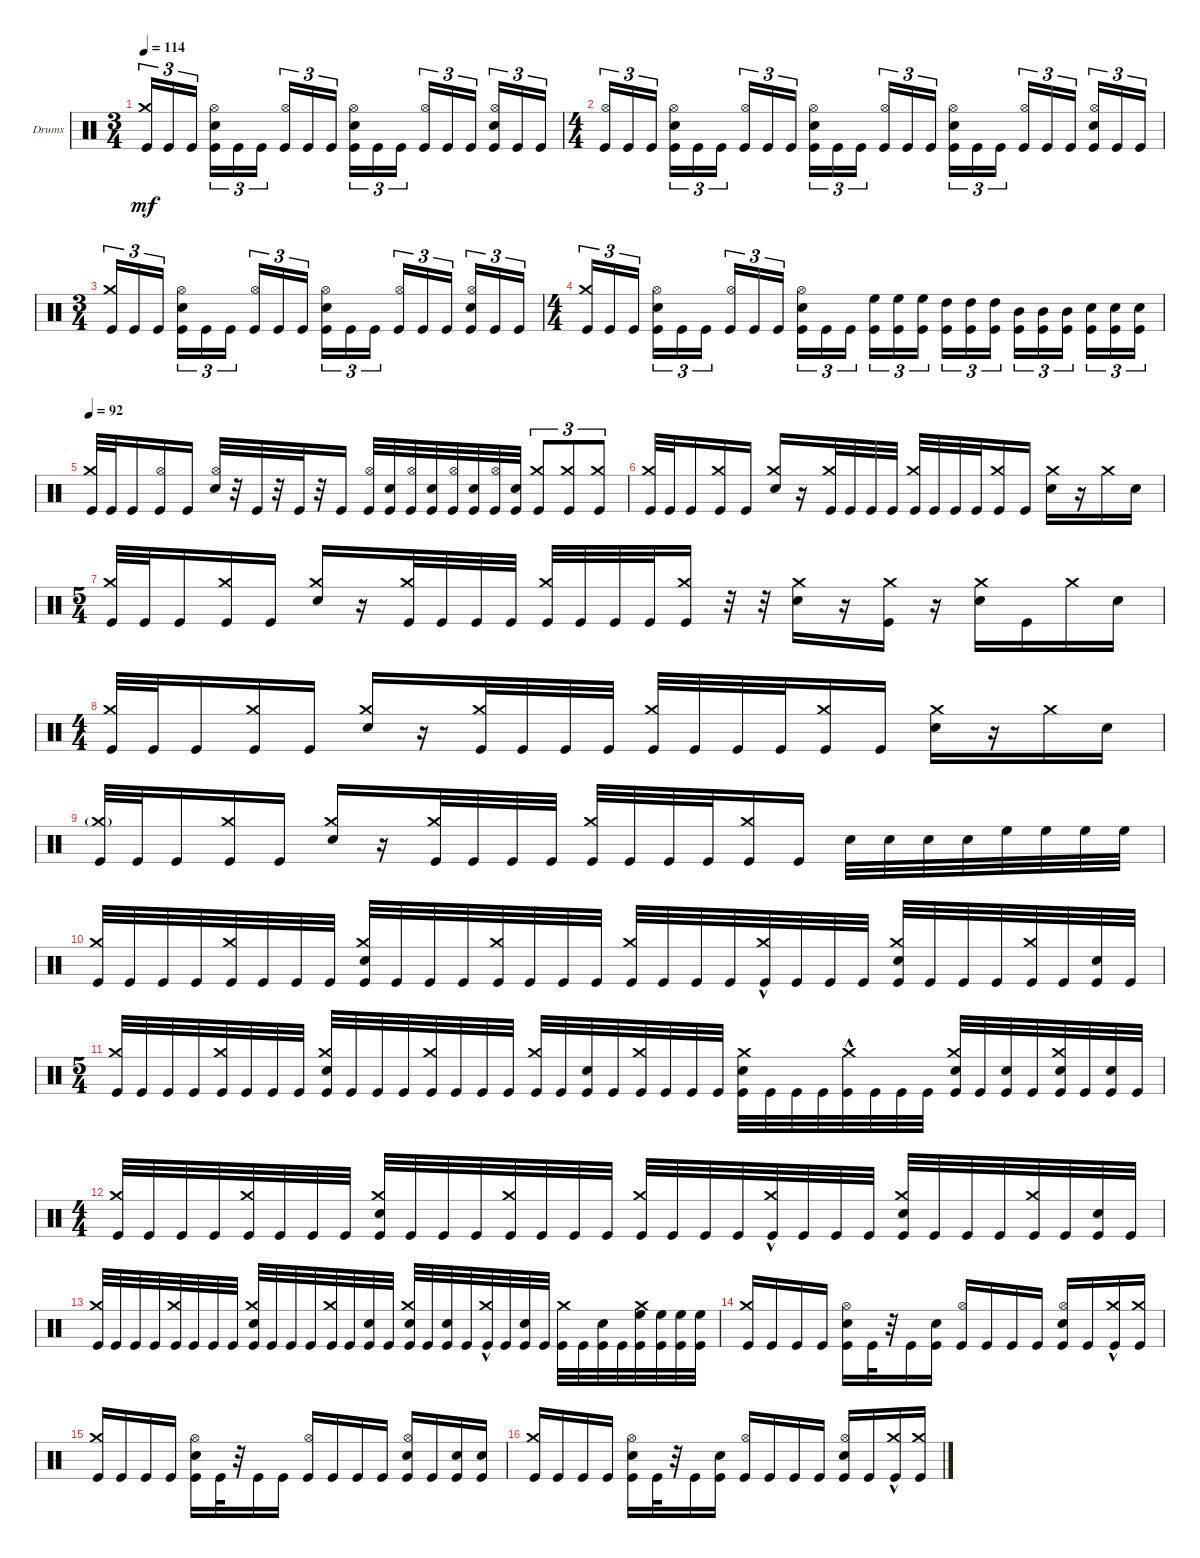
\defaultSystemsLayout 4
\bracketExtendMode groupsimilarinstruments
\firstSystemTrackNameOrientation horizontal
\otherSystemsTrackNameOrientation horizontal
\track ("Drumkit" "Drums") {instrument percussion}
\staff {score}
\articulation defaults
\ts (3 4)
\tempo 114
\clef neutral
\ks c
("Kick (hit)" "Crash medium (hit)").16{tu (3 2) dy mf beam invert} "Kick (hit)".16{tu (3 2)} "Kick (hit)".16{tu (3 2)} ("Kick (hit)" "Hi-Hat (open)" "Snare (hit) 2").16{tu (3 2)} "Kick (hit)".16{tu (3 2)} "Kick (hit)".16{tu (3 2)} ("Kick (hit)" "Hi-Hat (open)").16{tu (3 2) beam invert} "Kick (hit)".16{tu (3 2)} "Kick (hit)".16{tu (3 2)} ("Kick (hit)" "Hi-Hat (open)" "Snare (hit) 2").16{tu (3 2)} "Kick (hit)".16{tu (3 2)} "Kick (hit)".16{tu (3 2)} ("Kick (hit)" "Hi-Hat (open)").16{tu (3 2) beam invert} "Kick (hit)".16{tu (3 2)} "Kick (hit)".16{tu (3 2)} ("Kick (hit)" "Hi-Hat (open)" "Snare (hit) 2").16{tu (3 2)} "Kick (hit)".16{tu (3 2)} "Kick (hit)".16{tu (3 2)} |
\ts (4 4)
("Kick (hit)" "Hi-Hat (open)").16{tu (3 2) beam invert} "Kick (hit)".16{tu (3 2)} "Kick (hit)".16{tu (3 2)} ("Kick (hit)" "Hi-Hat (open)" "Snare (hit) 2").16{tu (3 2)} "Kick (hit)".16{tu (3 2)} "Kick (hit)".16{tu (3 2)} ("Kick (hit)" "Hi-Hat (open)").16{tu (3 2) beam invert} "Kick (hit)".16{tu (3 2)} "Kick (hit)".16{tu (3 2)} ("Kick (hit)" "Hi-Hat (open)" "Snare (hit) 2").16{tu (3 2)} "Kick (hit)".16{tu (3 2)} "Kick (hit)".16{tu (3 2)} ("Kick (hit)" "Hi-Hat (open)").16{tu (3 2) beam invert} "Kick (hit)".16{tu (3 2)} "Kick (hit)".16{tu (3 2)} ("Kick (hit)" "Hi-Hat (open)" "Snare (hit) 2").16{tu (3 2)} "Kick (hit)".16{tu (3 2)} "Kick (hit)".16{tu (3 2)} ("Kick (hit)" "Hi-Hat (open)").16{tu (3 2) beam invert} "Kick (hit)".16{tu (3 2)} "Kick (hit)".16{tu (3 2)} ("Kick (hit)" "Snare (hit) 2" "Hi-Hat (open)").16{tu (3 2)} "Kick (hit)".16{tu (3 2)} "Kick (hit)".16{tu (3 2)} |
\ts (3 4)
("Kick (hit)" "Crash medium (hit)").16{tu (3 2) beam invert} "Kick (hit)".16{tu (3 2)} "Kick (hit)".16{tu (3 2)} ("Kick (hit)" "Hi-Hat (open)" "Snare (hit) 2").16{tu (3 2)} "Kick (hit)".16{tu (3 2)} "Kick (hit)".16{tu (3 2)} ("Kick (hit)" "Hi-Hat (open)").16{tu (3 2) beam invert} "Kick (hit)".16{tu (3 2)} "Kick (hit)".16{tu (3 2)} ("Kick (hit)" "Hi-Hat (open)" "Snare (hit) 2").16{tu (3 2)} "Kick (hit)".16{tu (3 2)} "Kick (hit)".16{tu (3 2)} ("Kick (hit)" "Hi-Hat (open)").16{tu (3 2) beam invert} "Kick (hit)".16{tu (3 2)} "Kick (hit)".16{tu (3 2)} ("Kick (hit)" "Hi-Hat (open)" "Snare (hit) 2").16{tu (3 2)} "Kick (hit)".16{tu (3 2)} "Kick (hit)".16{tu (3 2)} |
\ts (4 4)
("Kick (hit)" "Crash medium (hit)").16{tu (3 2) beam invert} "Kick (hit)".16{tu (3 2)} "Kick (hit)".16{tu (3 2)} ("Kick (hit)" "Hi-Hat (open)" "Snare (hit) 2").16{tu (3 2)} "Kick (hit)".16{tu (3 2)} "Kick (hit)".16{tu (3 2)} ("Kick (hit)" "Hi-Hat (open)").16{tu (3 2) beam invert} "Kick (hit)".16{tu (3 2)} "Kick (hit)".16{tu (3 2)} ("Kick (hit)" "Hi-Hat (open)" "Snare (hit) 2").16{tu (3 2)} "Kick (hit)".16{tu (3 2)} "Kick (hit)".16{tu (3 2)} ("Kick (hit)" "High Floor Tom (hit)").16{tu (3 2) beam invert} ("Kick (hit)" "High Floor Tom (hit)").16{tu (3 2)} ("Kick (hit)" "High Floor Tom (hit)").16{tu (3 2)} ("High Tom (hit)" "Kick (hit)").16{tu (3 2) beam invert} ("High Tom (hit)" "Kick (hit)").16{tu (3 2)} ("High Tom (hit)" "Kick (hit)").16{tu (3 2)} ("Mid Tom (hit)" "Kick (hit)").16{tu (3 2) beam invert} ("Mid Tom (hit)" "Kick (hit)").16{tu (3 2)} ("Mid Tom (hit)" "Kick (hit)").16{tu (3 2)} ("Snare (hit) 2" "Kick (hit)").16{tu (3 2) beam invert} ("Snare (hit) 2" "Kick (hit)").16{tu (3 2)} ("Snare (hit) 2" "Kick (hit)").16{tu (3 2)} |
\tempo 92
("Kick (hit)" "Crash medium (hit)").32{beam invert} "Kick (hit)".32 "Kick (hit)".16 ("Kick (hit)" "Hi-Hat (open)").16 "Kick (hit)".16 ("Hi-Hat (open)" "Snare (hit) 2").32 r.32 "Kick (hit)".32 r.32 "Kick (hit)".32 r.32 "Kick (hit)".16 ("Kick (hit)" "Hi-Hat (open)").32{beam invert} ("Kick (hit)" "Snare (hit) 2").32 ("Kick (hit)" "Hi-Hat (open)").32 ("Kick (hit)" "Snare (hit) 2").32 ("Kick (hit)" "Hi-Hat (open)").32 ("Kick (hit)" "Snare (hit) 2").32 ("Kick (hit)" "Hi-Hat (open)").32 ("Kick (hit)" "Snare (hit) 2").32 ("Crash medium (hit)" "Kick (hit)").8{tu (3 2) beam invert} ("Crash medium (hit)" "Kick (hit)").8{tu (3 2)} ("Crash medium (hit)" "Kick (hit)").8{tu (3 2)} |
("Kick (hit)" "Crash medium (hit)").32{beam invert} "Kick (hit)".32 "Kick (hit)".16 ("Kick (hit)" "Crash medium (hit)").16 "Kick (hit)".16 ("Crash medium (hit)" "Snare (hit) 2").16{beam invert} r.16 ("Crash medium (hit)" "Kick (hit)").32 "Kick (hit)".32 "Kick (hit)".32 "Kick (hit)".32 ("Kick (hit)" "Crash medium (hit)").32{beam invert} "Kick (hit)".32 "Kick (hit)".32 "Kick (hit)".32 ("Kick (hit)" "Crash medium (hit)").16 "Kick (hit)".16 ("Crash medium (hit)" "Snare (hit) 2").16 r.16 "Crash medium (hit)".16 "Snare (hit) 2".16 |
\ts (5 4)
("Kick (hit)" "Crash medium (hit)").32{beam invert} "Kick (hit)".32 "Kick (hit)".16 ("Kick (hit)" "Crash medium (hit)").16 "Kick (hit)".16 ("Crash medium (hit)" "Snare (hit) 2").16{beam invert} r.16 ("Crash medium (hit)" "Kick (hit)").32 "Kick (hit)".32 "Kick (hit)".32 "Kick (hit)".32 ("Kick (hit)" "Crash medium (hit)").32{beam invert} "Kick (hit)".32 "Kick (hit)".32 "Kick (hit)".32 ("Kick (hit)" "Crash medium (hit)").16 r.32 r.32 ("Crash medium (hit)" "Snare (hit) 2").16 r.16 ("Crash medium (hit)" "Kick (hit)").16 r.16 ("Crash medium (hit)" "Snare (hit) 2").16 "Kick (hit)".16 "Crash medium (hit)".16 "Snare (hit) 2".16 |
\ts (4 4)
("Kick (hit)" "Crash medium (hit)").32{beam invert} "Kick (hit)".32 "Kick (hit)".16 ("Kick (hit)" "Crash medium (hit)").16 "Kick (hit)".16 ("Crash medium (hit)" "Snare (hit) 2").16{beam invert} r.16 ("Crash medium (hit)" "Kick (hit)").32 "Kick (hit)".32 "Kick (hit)".32 "Kick (hit)".32 ("Kick (hit)" "Crash medium (hit)").32{beam invert} "Kick (hit)".32 "Kick (hit)".32 "Kick (hit)".32 ("Kick (hit)" "Crash medium (hit)").16 "Kick (hit)".16 ("Crash medium (hit)" "Snare (hit) 2").16 r.16 "Crash medium (hit)".16 "Snare (hit) 2".16 |
("Kick (hit)" "Crash medium (hit)"{g}).32{beam invert} "Kick (hit)".32 "Kick (hit)".16 ("Kick (hit)" "Crash medium (hit)").16 "Kick (hit)".16 ("Crash medium (hit)" "Snare (hit) 2").16{beam invert} r.16 ("Crash medium (hit)" "Kick (hit)").32 "Kick (hit)".32 "Kick (hit)".32 "Kick (hit)".32 ("Kick (hit)" "Crash medium (hit)").32{beam invert} "Kick (hit)".32 "Kick (hit)".32 "Kick (hit)".32 ("Kick (hit)" "Crash medium (hit)").16 "Kick (hit)".16 "Snare (hit) 2".32 "Snare (hit) 2".32 "Snare (hit) 2".32 "Snare (hit) 2".32 "High Floor Tom (hit)".32 "High Floor Tom (hit)".32 "High Floor Tom (hit)".32 "High Floor Tom (hit)".32 |
("Kick (hit)" "Crash medium (hit)").32{beam invert} "Kick (hit)".32 "Kick (hit)".32 "Kick (hit)".32 ("Kick (hit)" "Crash medium (hit)").32 "Kick (hit)".32 "Kick (hit)".32 "Kick (hit)".32 ("Kick (hit)" "Crash medium (hit)" "Snare (hit) 2").32{beam invert} "Kick (hit)".32 "Kick (hit)".32 "Kick (hit)".32 ("Kick (hit)" "Crash medium (hit)").32 "Kick (hit)".32 "Kick (hit)".32 "Kick (hit)".32 ("Kick (hit)" "Crash medium (hit)").32{beam invert} "Kick (hit)".32 "Kick (hit)".32 "Kick (hit)".32 ("Kick (hit)" "Crash medium (hit)"{hac}).32 "Kick (hit)".32 "Kick (hit)".32 "Kick (hit)".32 ("Kick (hit)" "Crash medium (hit)" "Snare (hit) 2").32{beam invert} "Kick (hit)".32 "Kick (hit)".32 "Kick (hit)".32 ("Kick (hit)" "Crash medium (hit)").32 "Kick (hit)".32 ("Kick (hit)" "Snare (hit) 2").32 "Kick (hit)".32 |
\ts (5 4)
("Kick (hit)" "Crash medium (hit)").32{beam invert} "Kick (hit)".32 "Kick (hit)".32 "Kick (hit)".32 ("Kick (hit)" "Crash medium (hit)").32 "Kick (hit)".32 "Kick (hit)".32 "Kick (hit)".32 ("Kick (hit)" "Crash medium (hit)" "Snare (hit) 2").32{beam invert} "Kick (hit)".32 "Kick (hit)".32 "Kick (hit)".32 ("Kick (hit)" "Crash medium (hit)").32 "Kick (hit)".32 "Kick (hit)".32 "Kick (hit)".32 ("Kick (hit)" "Crash medium (hit)").32{beam invert} "Kick (hit)".32 ("Kick (hit)" "Snare (hit) 2").32 "Kick (hit)".32 ("Kick (hit)" "Crash medium (hit)").32 "Kick (hit)".32 "Kick (hit)".32 "Kick (hit)".32 ("Kick (hit)" "Crash medium (hit)" "Snare (hit) 2").32 "Kick (hit)".32 "Kick (hit)".32 "Kick (hit)".32 ("Kick (hit)" "Crash medium (hit)"{hac}).32 "Kick (hit)".32 "Kick (hit)".32 "Kick (hit)".32 ("Kick (hit)" "Crash medium (hit)" "Snare (hit) 2").32 "Kick (hit)".32 ("Kick (hit)" "Snare (hit) 2").32 "Kick (hit)".32 ("Kick (hit)" "Crash medium (hit)" "Snare (hit) 2").32 "Kick (hit)".32 ("Kick (hit)" "Snare (hit) 2").32 "Kick (hit)".32 |
\ts (4 4)
("Kick (hit)" "Crash medium (hit)").32{beam invert} "Kick (hit)".32 "Kick (hit)".32 "Kick (hit)".32 ("Kick (hit)" "Crash medium (hit)").32 "Kick (hit)".32 "Kick (hit)".32 "Kick (hit)".32 ("Kick (hit)" "Crash medium (hit)" "Snare (hit) 2").32{beam invert} "Kick (hit)".32 "Kick (hit)".32 "Kick (hit)".32 ("Kick (hit)" "Crash medium (hit)").32 "Kick (hit)".32 "Kick (hit)".32 "Kick (hit)".32 ("Kick (hit)" "Crash medium (hit)").32{beam invert} "Kick (hit)".32 "Kick (hit)".32 "Kick (hit)".32 ("Kick (hit)" "Crash medium (hit)"{hac}).32 "Kick (hit)".32 "Kick (hit)".32 "Kick (hit)".32 ("Kick (hit)" "Crash medium (hit)" "Snare (hit) 2").32{beam invert} "Kick (hit)".32 "Kick (hit)".32 "Kick (hit)".32 ("Kick (hit)" "Crash medium (hit)").32 "Kick (hit)".32 ("Kick (hit)" "Snare (hit) 2").32 "Kick (hit)".32 |
("Kick (hit)" "Crash medium (hit)").32{beam invert} "Kick (hit)".32 "Kick (hit)".32 "Kick (hit)".32 ("Kick (hit)" "Crash medium (hit)").32 "Kick (hit)".32 "Kick (hit)".32 "Kick (hit)".32 ("Kick (hit)" "Crash medium (hit)" "Snare (hit) 2").32{beam invert} "Kick (hit)".32 "Kick (hit)".32 "Kick (hit)".32 ("Kick (hit)" "Crash medium (hit)").32 "Kick (hit)".32 ("Kick (hit)" "Snare (hit) 2").32 "Kick (hit)".32 ("Kick (hit)" "Crash medium (hit)" "Snare (hit) 2").32{beam invert} "Kick (hit)".32 ("Kick (hit)" "Snare (hit) 2").32 "Kick (hit)".32 ("Kick (hit)" "Crash medium (hit)"{hac}).32 "Kick (hit)".32 ("Kick (hit)" "Snare (hit) 2").32 "Kick (hit)".32 ("Kick (hit)" "Crash medium (hit)").32 "Kick (hit)".32 ("Kick (hit)" "Snare (hit) 2").32 "Kick (hit)".32 ("Kick (hit)" "Crash medium (hit)" "High Floor Tom (hit)").32 ("Kick (hit)" "High Floor Tom (hit)").32 ("Kick (hit)" "High Floor Tom (hit)").32 ("Kick (hit)" "High Floor Tom (hit)").32 |
("Kick (hit)" "Crash medium (hit)").16{beam invert} "Kick (hit)".16 "Kick (hit)".16 "Kick (hit)".16 ("Kick (hit)" "Snare (hit) 2" "Hi-Hat (open)").16 "Kick (hit)".32 r.32 "Kick (hit)".16 ("Kick (hit)" "Snare (hit) 2").16 ("Hi-Hat (open)" "Kick (hit)").16{beam invert} "Kick (hit)".16 "Kick (hit)".16 "Kick (hit)".16 ("Kick (hit)" "Snare (hit) 2" "Hi-Hat (open)").16{beam invert} "Kick (hit)".16 ("Kick (hit)" "Crash medium (hit)"{hac}).16 ("Kick (hit)" "Crash medium (hit)").16 |
("Kick (hit)" "Crash medium (hit)").16{beam invert} "Kick (hit)".16 "Kick (hit)".16 "Kick (hit)".16 ("Kick (hit)" "Snare (hit) 2" "Hi-Hat (open)").16 "Kick (hit)".32 r.32 "Kick (hit)".16 "Kick (hit)".16 ("Hi-Hat (open)" "Kick (hit)").16{beam invert} "Kick (hit)".16 "Kick (hit)".16 "Kick (hit)".16 ("Kick (hit)" "Snare (hit) 2" "Hi-Hat (open)").16 "Kick (hit)".16 ("Kick (hit)" "Snare (hit) 2").16 ("Kick (hit)" "Snare (hit) 2").16 |
("Kick (hit)" "Crash medium (hit)").16{beam invert} "Kick (hit)".16 "Kick (hit)".16 "Kick (hit)".16 ("Kick (hit)" "Snare (hit) 2" "Hi-Hat (open)").16 "Kick (hit)".32 r.32 "Kick (hit)".16 ("Kick (hit)" "Snare (hit) 2").16 ("Hi-Hat (open)" "Kick (hit)").16{beam invert} "Kick (hit)".16 "Kick (hit)".16 "Kick (hit)".16 ("Kick (hit)" "Snare (hit) 2" "Hi-Hat (open)").16{beam invert} "Kick (hit)".16 ("Kick (hit)" "Crash medium (hit)"{hac}).16 ("Kick (hit)" "Crash medium (hit)").16
